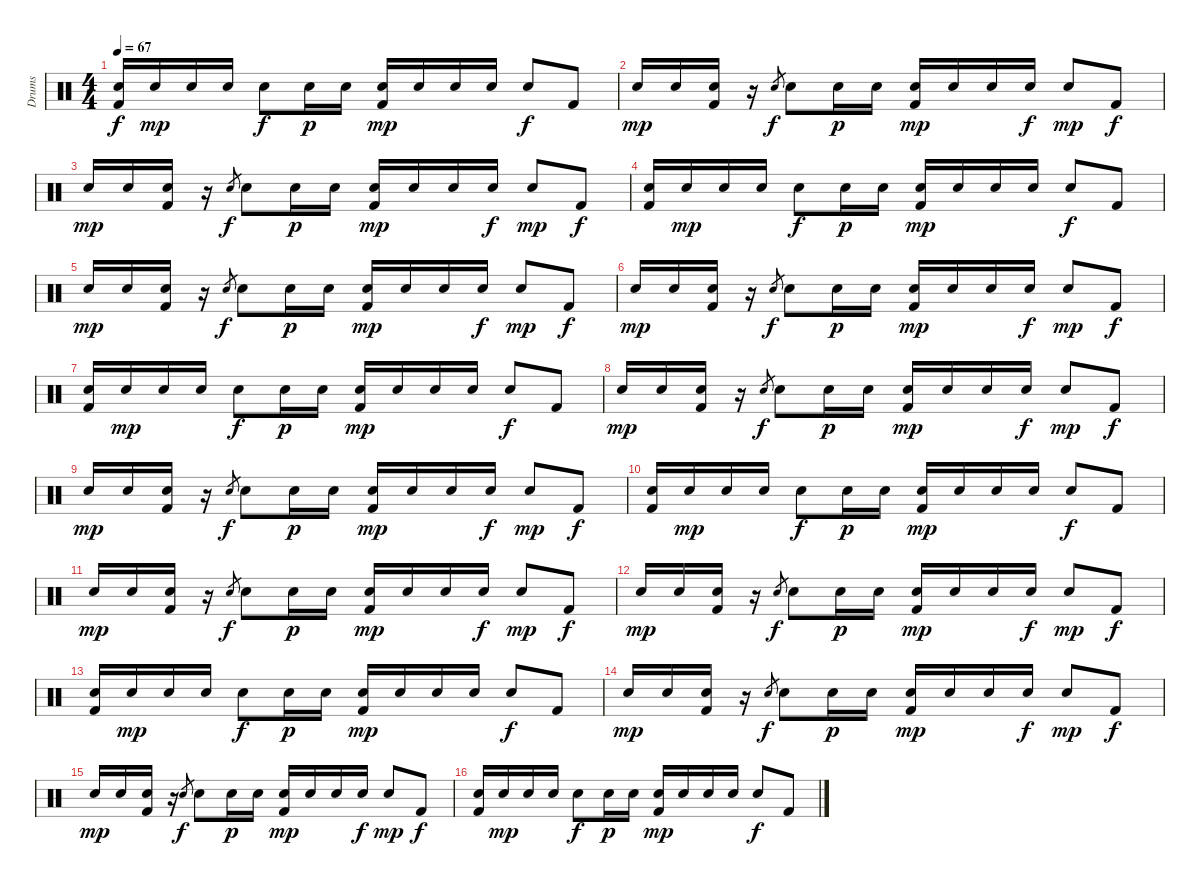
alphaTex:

\track ("Drums" "Drums") {instrument percussion}
\staff {score}
\articulation defaults
\ts (4 4)
\tempo 67
\clef neutral
\ks c
("Electric Snare (hit)" "Kick (hit) 2").16{dy f} "Electric Snare (hit)".16{dy mp} "Electric Snare (hit)".16 "Electric Snare (hit)".16 "Electric Snare (hit)".8{dy f} "Electric Snare (hit)".16{dy p} "Electric Snare (hit)".16 ("Electric Snare (hit)" "Kick (hit) 2").16{dy mp} "Electric Snare (hit)".16 "Electric Snare (hit)".16 "Electric Snare (hit)".16 "Electric Snare (hit)".8{dy f} "Kick (hit) 2".8 |
"Electric Snare (hit)".16{dy mp} "Electric Snare (hit)".16 ("Electric Snare (hit)" "Kick (hit) 2").16 r.16 "Electric Snare (hit)".8{gr dy f} "Electric Snare (hit)".8 "Electric Snare (hit)".16{dy p} "Electric Snare (hit)".16 ("Electric Snare (hit)" "Kick (hit) 2").16{dy mp} "Electric Snare (hit)".16 "Electric Snare (hit)".16 "Electric Snare (hit)".16{dy f} "Electric Snare (hit)".8{dy mp} "Kick (hit) 2".8{dy f} |
"Electric Snare (hit)".16{dy mp} "Electric Snare (hit)".16 ("Electric Snare (hit)" "Kick (hit) 2").16 r.16 "Electric Snare (hit)".8{gr dy f} "Electric Snare (hit)".8 "Electric Snare (hit)".16{dy p} "Electric Snare (hit)".16 ("Electric Snare (hit)" "Kick (hit) 2").16{dy mp} "Electric Snare (hit)".16 "Electric Snare (hit)".16 "Electric Snare (hit)".16{dy f} "Electric Snare (hit)".8{dy mp} "Kick (hit) 2".8{dy f} |
("Electric Snare (hit)" "Kick (hit) 2").16 "Electric Snare (hit)".16{dy mp} "Electric Snare (hit)".16 "Electric Snare (hit)".16 "Electric Snare (hit)".8{dy f} "Electric Snare (hit)".16{dy p} "Electric Snare (hit)".16 ("Electric Snare (hit)" "Kick (hit) 2").16{dy mp} "Electric Snare (hit)".16 "Electric Snare (hit)".16 "Electric Snare (hit)".16 "Electric Snare (hit)".8{dy f} "Kick (hit) 2".8 |
"Electric Snare (hit)".16{dy mp} "Electric Snare (hit)".16 ("Electric Snare (hit)" "Kick (hit) 2").16 r.16 "Electric Snare (hit)".8{gr dy f} "Electric Snare (hit)".8 "Electric Snare (hit)".16{dy p} "Electric Snare (hit)".16 ("Electric Snare (hit)" "Kick (hit) 2").16{dy mp} "Electric Snare (hit)".16 "Electric Snare (hit)".16 "Electric Snare (hit)".16{dy f} "Electric Snare (hit)".8{dy mp} "Kick (hit) 2".8{dy f} |
"Electric Snare (hit)".16{dy mp} "Electric Snare (hit)".16 ("Electric Snare (hit)" "Kick (hit) 2").16 r.16 "Electric Snare (hit)".8{gr dy f} "Electric Snare (hit)".8 "Electric Snare (hit)".16{dy p} "Electric Snare (hit)".16 ("Electric Snare (hit)" "Kick (hit) 2").16{dy mp} "Electric Snare (hit)".16 "Electric Snare (hit)".16 "Electric Snare (hit)".16{dy f} "Electric Snare (hit)".8{dy mp} "Kick (hit) 2".8{dy f} |
("Electric Snare (hit)" "Kick (hit) 2").16 "Electric Snare (hit)".16{dy mp} "Electric Snare (hit)".16 "Electric Snare (hit)".16 "Electric Snare (hit)".8{dy f} "Electric Snare (hit)".16{dy p} "Electric Snare (hit)".16 ("Electric Snare (hit)" "Kick (hit) 2").16{dy mp} "Electric Snare (hit)".16 "Electric Snare (hit)".16 "Electric Snare (hit)".16 "Electric Snare (hit)".8{dy f} "Kick (hit) 2".8 |
"Electric Snare (hit)".16{dy mp} "Electric Snare (hit)".16 ("Electric Snare (hit)" "Kick (hit) 2").16 r.16 "Electric Snare (hit)".8{gr dy f} "Electric Snare (hit)".8 "Electric Snare (hit)".16{dy p} "Electric Snare (hit)".16 ("Electric Snare (hit)" "Kick (hit) 2").16{dy mp} "Electric Snare (hit)".16 "Electric Snare (hit)".16 "Electric Snare (hit)".16{dy f} "Electric Snare (hit)".8{dy mp} "Kick (hit) 2".8{dy f} |
"Electric Snare (hit)".16{dy mp} "Electric Snare (hit)".16 ("Electric Snare (hit)" "Kick (hit) 2").16 r.16 "Electric Snare (hit)".8{gr dy f} "Electric Snare (hit)".8 "Electric Snare (hit)".16{dy p} "Electric Snare (hit)".16 ("Electric Snare (hit)" "Kick (hit) 2").16{dy mp} "Electric Snare (hit)".16 "Electric Snare (hit)".16 "Electric Snare (hit)".16{dy f} "Electric Snare (hit)".8{dy mp} "Kick (hit) 2".8{dy f} |
("Electric Snare (hit)" "Kick (hit) 2").16 "Electric Snare (hit)".16{dy mp} "Electric Snare (hit)".16 "Electric Snare (hit)".16 "Electric Snare (hit)".8{dy f} "Electric Snare (hit)".16{dy p} "Electric Snare (hit)".16 ("Electric Snare (hit)" "Kick (hit) 2").16{dy mp} "Electric Snare (hit)".16 "Electric Snare (hit)".16 "Electric Snare (hit)".16 "Electric Snare (hit)".8{dy f} "Kick (hit) 2".8 |
"Electric Snare (hit)".16{dy mp} "Electric Snare (hit)".16 ("Electric Snare (hit)" "Kick (hit) 2").16 r.16 "Electric Snare (hit)".8{gr dy f} "Electric Snare (hit)".8 "Electric Snare (hit)".16{dy p} "Electric Snare (hit)".16 ("Electric Snare (hit)" "Kick (hit) 2").16{dy mp} "Electric Snare (hit)".16 "Electric Snare (hit)".16 "Electric Snare (hit)".16{dy f} "Electric Snare (hit)".8{dy mp} "Kick (hit) 2".8{dy f} |
"Electric Snare (hit)".16{dy mp} "Electric Snare (hit)".16 ("Electric Snare (hit)" "Kick (hit) 2").16 r.16 "Electric Snare (hit)".8{gr dy f} "Electric Snare (hit)".8 "Electric Snare (hit)".16{dy p} "Electric Snare (hit)".16 ("Electric Snare (hit)" "Kick (hit) 2").16{dy mp} "Electric Snare (hit)".16 "Electric Snare (hit)".16 "Electric Snare (hit)".16{dy f} "Electric Snare (hit)".8{dy mp} "Kick (hit) 2".8{dy f} |
("Electric Snare (hit)" "Kick (hit) 2").16 "Electric Snare (hit)".16{dy mp} "Electric Snare (hit)".16 "Electric Snare (hit)".16 "Electric Snare (hit)".8{dy f} "Electric Snare (hit)".16{dy p} "Electric Snare (hit)".16 ("Electric Snare (hit)" "Kick (hit) 2").16{dy mp} "Electric Snare (hit)".16 "Electric Snare (hit)".16 "Electric Snare (hit)".16 "Electric Snare (hit)".8{dy f} "Kick (hit) 2".8 |
"Electric Snare (hit)".16{dy mp} "Electric Snare (hit)".16 ("Electric Snare (hit)" "Kick (hit) 2").16 r.16 "Electric Snare (hit)".8{gr dy f} "Electric Snare (hit)".8 "Electric Snare (hit)".16{dy p} "Electric Snare (hit)".16 ("Electric Snare (hit)" "Kick (hit) 2").16{dy mp} "Electric Snare (hit)".16 "Electric Snare (hit)".16 "Electric Snare (hit)".16{dy f} "Electric Snare (hit)".8{dy mp} "Kick (hit) 2".8{dy f} |
"Electric Snare (hit)".16{dy mp} "Electric Snare (hit)".16 ("Electric Snare (hit)" "Kick (hit) 2").16 r.16 "Electric Snare (hit)".8{gr dy f} "Electric Snare (hit)".8 "Electric Snare (hit)".16{dy p} "Electric Snare (hit)".16 ("Electric Snare (hit)" "Kick (hit) 2").16{dy mp} "Electric Snare (hit)".16 "Electric Snare (hit)".16 "Electric Snare (hit)".16{dy f} "Electric Snare (hit)".8{dy mp} "Kick (hit) 2".8{dy f} |
("Electric Snare (hit)" "Kick (hit) 2").16 "Electric Snare (hit)".16{dy mp} "Electric Snare (hit)".16 "Electric Snare (hit)".16 "Electric Snare (hit)".8{dy f} "Electric Snare (hit)".16{dy p} "Electric Snare (hit)".16 ("Electric Snare (hit)" "Kick (hit) 2").16{dy mp} "Electric Snare (hit)".16 "Electric Snare (hit)".16 "Electric Snare (hit)".16 "Electric Snare (hit)".8{dy f} "Kick (hit) 2".8
